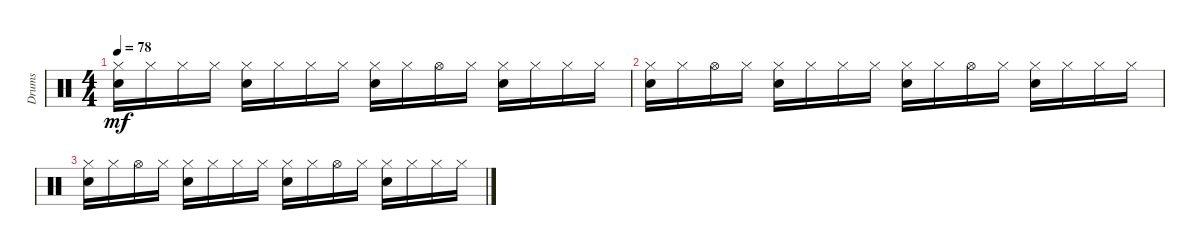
\track ("Drums" "Drums") {instrument percussion}
\staff {score}
\articulation defaults
\ts (4 4)
\tempo 78
\clef neutral
\ks c
("Hi-Hat (closed)" "Electric Snare (hit)").16{dy mf} "Hi-Hat (closed)".16 "Hi-Hat (closed)".16 "Hi-Hat (closed)".16 ("Hi-Hat (closed)" "Electric Snare (hit)").16 "Hi-Hat (closed)".16 "Hi-Hat (closed)".16 "Hi-Hat (closed)".16 ("Hi-Hat (closed)" "Electric Snare (hit)").16 "Hi-Hat (closed)".16 "Hi-Hat (open)".16 "Hi-Hat (closed)".16 ("Hi-Hat (closed)" "Electric Snare (hit)").16 "Hi-Hat (closed)".16 "Hi-Hat (closed)".16 "Hi-Hat (closed)".16 |
("Hi-Hat (closed)" "Electric Snare (hit)").16 "Hi-Hat (closed)".16 "Hi-Hat (open)".16 "Hi-Hat (closed)".16 ("Hi-Hat (closed)" "Electric Snare (hit)").16 "Hi-Hat (closed)".16 "Hi-Hat (closed)".16 "Hi-Hat (closed)".16 ("Hi-Hat (closed)" "Electric Snare (hit)").16 "Hi-Hat (closed)".16 "Hi-Hat (open)".16 "Hi-Hat (closed)".16 ("Hi-Hat (closed)" "Electric Snare (hit)").16 "Hi-Hat (closed)".16 "Hi-Hat (closed)".16 "Hi-Hat (closed)".16 |
("Hi-Hat (closed)" "Electric Snare (hit)").16 "Hi-Hat (closed)".16 "Hi-Hat (open)".16 "Hi-Hat (closed)".16 ("Hi-Hat (closed)" "Electric Snare (hit)").16 "Hi-Hat (closed)".16 "Hi-Hat (closed)".16 "Hi-Hat (closed)".16 ("Hi-Hat (closed)" "Electric Snare (hit)").16 "Hi-Hat (closed)".16 "Hi-Hat (open)".16 "Hi-Hat (closed)".16 ("Hi-Hat (closed)" "Electric Snare (hit)").16 "Hi-Hat (closed)".16 "Hi-Hat (closed)".16 "Hi-Hat (closed)".16
